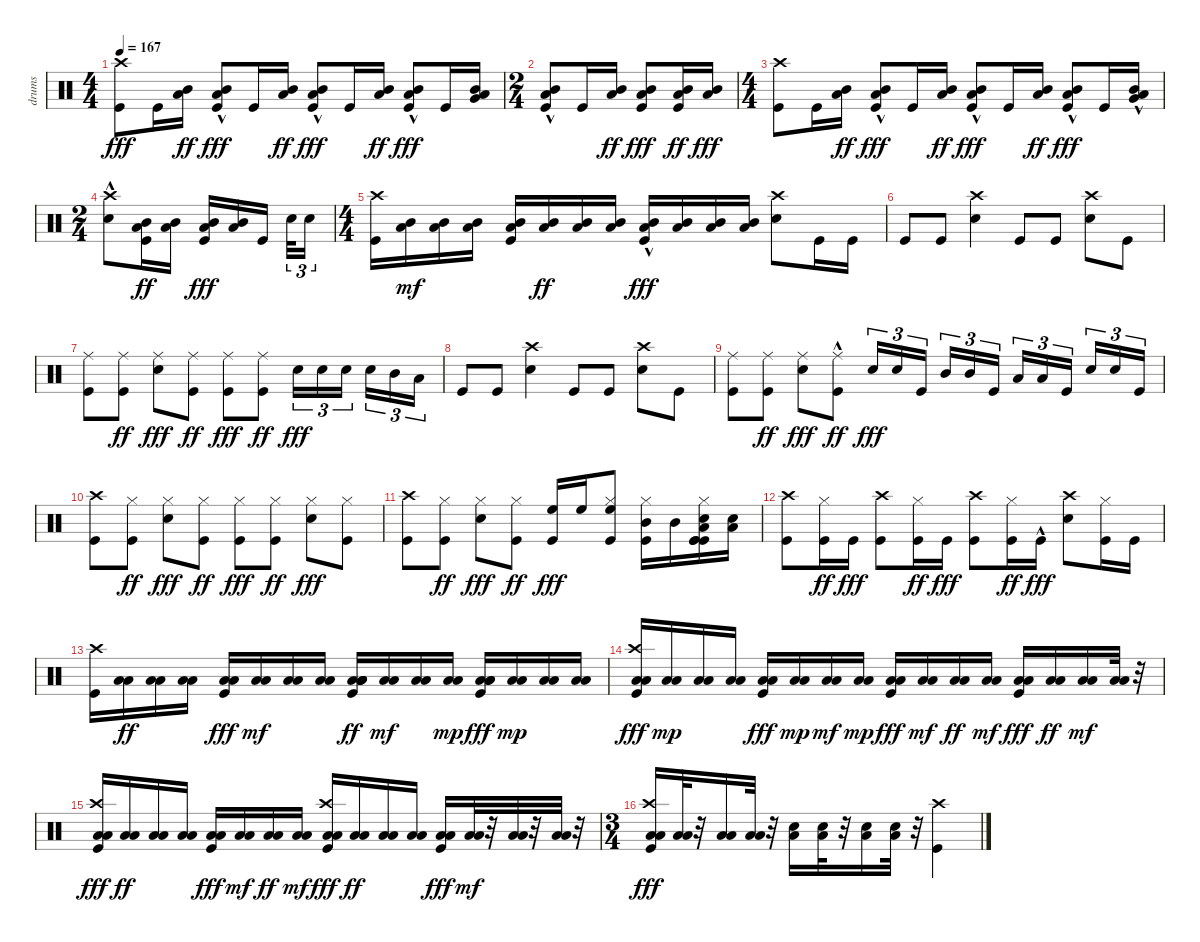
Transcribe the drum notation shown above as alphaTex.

\track ("drums" "drums") {instrument percussion}
\staff {score}
\articulation defaults
\ts (4 4)
\tempo 167
\clef neutral
\ks c
("Kick (hit)" "Crash high (hit)").8{dy fff} "Kick (hit)".16 ("Low Floor Tom (hit)" "Mid Tom (hit)").16{dy ff} ("Kick (hit)" "Low Floor Tom (hit)"{hac} "Mid Tom (hit)"{hac}).8{dy fff} "Kick (hit)".16 ("Low Floor Tom (hit)" "Mid Tom (hit)").16{dy ff} ("Kick (hit)" "Low Floor Tom (hit)"{hac} "Mid Tom (hit)"{hac}).8{dy fff} "Kick (hit)".16 ("Low Floor Tom (hit)" "Mid Tom (hit)").16{dy ff} ("Kick (hit)" "Low Floor Tom (hit)"{hac} "Mid Tom (hit)"{hac}).8{dy fff} "Kick (hit)".16 ("Mid Tom (hit)" "Low Floor Tom (hit)" "Very Low Tom (hit)").16 |
\ts (2 4)
("Low Floor Tom (hit)"{hac} "Kick (hit)" "Mid Tom (hit)"{hac}).8 "Kick (hit)".16 ("Low Floor Tom (hit)" "Mid Tom (hit)").16{dy ff} ("Kick (hit)" "Low Floor Tom (hit)" "Mid Tom (hit)").8{dy fff} ("Kick (hit)" "Low Floor Tom (hit)" "Mid Tom (hit)").16{dy ff} ("Mid Tom (hit)" "Low Floor Tom (hit)").16{dy fff} |
\ts (4 4)
("Kick (hit)" "Crash high (hit)").8 "Kick (hit)".16 ("Low Floor Tom (hit)" "Mid Tom (hit)").16{dy ff} ("Kick (hit)" "Low Floor Tom (hit)"{hac} "Mid Tom (hit)"{hac}).8{dy fff} "Kick (hit)".16 ("Low Floor Tom (hit)" "Mid Tom (hit)").16{dy ff} ("Kick (hit)" "Low Floor Tom (hit)"{hac} "Mid Tom (hit)"{hac}).8{dy fff} "Kick (hit)".16 ("Low Floor Tom (hit)" "Mid Tom (hit)").16{dy ff} ("Kick (hit)" "Low Floor Tom (hit)"{hac} "Mid Tom (hit)"{hac}).8{dy fff} "Kick (hit)".16 ("Mid Tom (hit)"{hac} "Low Floor Tom (hit)"{hac} "Very Low Tom (hit)").16 |
\ts (2 4)
("Crash high (hit)" "Snare (hit) 2"{hac}).8 ("Low Floor Tom (hit)" "Kick (hit)" "Mid Tom (hit)").16{dy ff} ("Low Floor Tom (hit)" "Mid Tom (hit)").16 ("Low Floor Tom (hit)" "Kick (hit)" "Mid Tom (hit)").16{dy fff} ("Mid Tom (hit)" "Low Floor Tom (hit)").16 "Kick (hit)".16 "Snare (hit) 2".32{tu (3 2)} "Snare (hit) 2".16{tu (3 2)} |
\ts (4 4)
("Kick (hit)" "Crash high (hit)").16 ("Low Floor Tom (hit)" "Mid Tom (hit)").16{dy mf} ("Low Floor Tom (hit)" "Mid Tom (hit)").16 ("Low Floor Tom (hit)" "Mid Tom (hit)").16 ("Low Floor Tom (hit)" "Kick (hit)" "Mid Tom (hit)").16 ("Low Floor Tom (hit)" "Mid Tom (hit)").16{dy ff} ("Low Floor Tom (hit)" "Mid Tom (hit)").16 ("Low Floor Tom (hit)" "Mid Tom (hit)").16 ("Low Floor Tom (hit)" "Kick (hit)"{hac} "Mid Tom (hit)").16{dy fff} ("Low Floor Tom (hit)" "Mid Tom (hit)").16 ("Low Floor Tom (hit)" "Mid Tom (hit)").16 ("Mid Tom (hit)" "Low Floor Tom (hit)").16 ("Crash high (hit)" "Snare (hit) 2").8 "Kick (hit)".16 "Kick (hit)".16 |
"Kick (hit)".8 "Kick (hit)".8 ("Snare (hit) 2" "Crash high (hit)").4 "Kick (hit)".8 "Kick (hit)".8 ("Crash high (hit)" "Snare (hit) 2").8 "Kick (hit)".8 |
("Kick (hit)" "Ride (middle)").8 ("Kick (hit)" "Ride (middle)").8{dy ff} ("Snare (hit) 2" "Ride (middle)").8{dy fff} ("Kick (hit)" "Ride (middle)").8{dy ff} ("Kick (hit)" "Ride (middle)").8{dy fff} ("Kick (hit)" "Ride (middle)").8{dy ff} "Snare (hit) 2".16{tu (3 2) dy fff} "Snare (hit) 2".16{tu (3 2)} "Snare (hit) 2".16{tu (3 2)} "Snare (hit) 2".16{tu (3 2)} "Mid Tom (hit)".16{tu (3 2)} "Low Floor Tom (hit)".16{tu (3 2)} |
"Kick (hit)".8 "Kick (hit)".8 ("Snare (hit) 2" "Crash high (hit)").4 "Kick (hit)".8 "Kick (hit)".8 ("Crash high (hit)" "Snare (hit) 2").8 "Kick (hit)".8 |
("Kick (hit)" "Ride (middle)").8 ("Kick (hit)" "Ride (middle)").8{dy ff} ("Snare (hit) 2" "Ride (middle)").8{dy fff} ("Kick (hit)"{hac} "Ride (middle)").8{dy ff} "Snare (hit) 2".16{tu (3 2) dy fff} "Snare (hit) 2".16{tu (3 2)} "Kick (hit)".16{tu (3 2)} "Mid Tom (hit)".16{tu (3 2)} "Mid Tom (hit)".16{tu (3 2)} "Kick (hit)".16{tu (3 2)} "Low Floor Tom (hit)".16{tu (3 2)} "Low Floor Tom (hit)".16{tu (3 2)} "Kick (hit)".16{tu (3 2)} "Snare (hit) 2".16{tu (3 2)} "Snare (hit) 2".16{tu (3 2)} "Kick (hit)".16{tu (3 2)} |
("Crash high (hit)" "Kick (hit)").8 ("Kick (hit)" "Hi-Hat (closed)").8{dy ff} ("Snare (hit) 2" "Hi-Hat (closed)").8{dy fff} ("Kick (hit)" "Hi-Hat (closed)").8{dy ff} ("Kick (hit)" "Hi-Hat (closed)").8{dy fff} ("Kick (hit)" "Hi-Hat (closed)").8{dy ff} ("Snare (hit) 2" "Hi-Hat (closed)").8{dy fff} ("Hi-Hat (closed)" "Kick (hit)").8 |
("Crash high (hit)" "Kick (hit)").8 ("Kick (hit)" "Hi-Hat (closed)").8{dy ff} ("Snare (hit) 2" "Hi-Hat (closed)").8{dy fff} ("Kick (hit)" "Hi-Hat (closed)").8{dy ff} ("Kick (hit)" "High Floor Tom (hit)").16{dy fff} "High Floor Tom (hit)".16 ("Kick (hit)" "Hi-Hat (closed)" "High Floor Tom (hit)").8 ("Kick (hit)" "Hi-Hat (closed)" "Mid Tom (hit)").16 "Mid Tom (hit)".16 ("Hi-Hat (closed)" "Kick (hit)" "Kick (hit)" "Kick (hit)" "Low Floor Tom (hit)" "Snare (hit) 2").16 ("Low Floor Tom (hit)" "Snare (hit) 2").16 |
("Kick (hit)" "Crash high (hit)").8 ("Kick (hit)" "Hi-Hat (closed)").16{dy ff} "Kick (hit)".16{dy fff} ("Kick (hit)" "Crash high (hit)").8 ("Kick (hit)" "Hi-Hat (closed)").16{dy ff} "Kick (hit)".16{dy fff} ("Kick (hit)" "Crash high (hit)").8 ("Kick (hit)" "Hi-Hat (closed)").16{dy ff} "Kick (hit)"{hac}.16{dy fff} ("Crash high (hit)" "Snare (hit) 2").8 ("Hi-Hat (closed)" "Kick (hit)").16 "Kick (hit)".16 |
("Kick (hit)" "Crash high (hit)").16 ("Low Floor Tom (hit)" "Low Tom (hit)").16{dy ff} ("Low Floor Tom (hit)" "Low Tom (hit)").16 ("Low Floor Tom (hit)" "Low Tom (hit)").16 ("Low Floor Tom (hit)" "Kick (hit)" "Low Tom (hit)").16{dy fff} ("Low Floor Tom (hit)" "Low Tom (hit)").16{dy mf} ("Low Floor Tom (hit)" "Low Tom (hit)").16 ("Low Floor Tom (hit)" "Low Tom (hit)").16 ("Low Floor Tom (hit)" "Low Tom (hit)" "Low Floor Tom (hit)" "Kick (hit)" "Low Tom (hit)").16{dy ff} ("Low Floor Tom (hit)" "Low Tom (hit)").16{dy mf} ("Low Floor Tom (hit)" "Low Tom (hit)").16 ("Low Floor Tom (hit)" "Low Tom (hit)").16{dy mp} ("Kick (hit)" "Low Floor Tom (hit)" "Low Floor Tom (hit)" "Low Tom (hit)").16{dy fff} ("Low Floor Tom (hit)" "Low Tom (hit)").16{dy mp} ("Low Floor Tom (hit)" "Low Tom (hit)").16 ("Low Tom (hit)" "Low Floor Tom (hit)").16 |
("Low Floor Tom (hit)" "Kick (hit)" "Low Tom (hit)" "Crash high (hit)").16{dy fff} ("Low Floor Tom (hit)" "Low Tom (hit)").16{dy mp} ("Low Floor Tom (hit)" "Low Tom (hit)").16 ("Low Floor Tom (hit)" "Low Tom (hit)").16 ("Low Floor Tom (hit)" "Kick (hit)" "Low Tom (hit)").16{dy fff} ("Low Floor Tom (hit)" "Low Tom (hit)").16{dy mp} ("Low Floor Tom (hit)" "Low Tom (hit)").16{dy mf} ("Low Floor Tom (hit)" "Low Tom (hit)").16{dy mp} ("Low Floor Tom (hit)" "Kick (hit)" "Low Tom (hit)").16{dy fff} ("Low Floor Tom (hit)" "Low Tom (hit)").16{dy mf} ("Low Floor Tom (hit)" "Low Tom (hit)").16{dy ff} ("Low Floor Tom (hit)" "Low Tom (hit)").16{dy mf} ("Kick (hit)" "Low Floor Tom (hit)" "Low Tom (hit)").16{dy fff} ("Low Floor Tom (hit)" "Low Tom (hit)").16{dy ff} ("Low Floor Tom (hit)" "Low Tom (hit)").16{dy mf} ("Low Floor Tom (hit)" "Low Tom (hit)").32 r.32 |
("Low Floor Tom (hit)" "Kick (hit)" "Low Tom (hit)" "Crash high (hit)").16{dy fff} ("Low Floor Tom (hit)" "Low Tom (hit)").16{dy ff} ("Low Floor Tom (hit)" "Low Tom (hit)").16 ("Low Floor Tom (hit)" "Low Tom (hit)").16 ("Low Floor Tom (hit)" "Kick (hit)" "Low Tom (hit)").16{dy fff} ("Low Floor Tom (hit)" "Low Tom (hit)").16{dy mf} ("Low Floor Tom (hit)" "Low Tom (hit)").16{dy ff} ("Low Floor Tom (hit)" "Low Tom (hit)").16{dy mf} ("Crash high (hit)" "Low Floor Tom (hit)" "Kick (hit)" "Low Tom (hit)").16{dy fff} ("Low Floor Tom (hit)" "Low Tom (hit)").16{dy ff} ("Low Floor Tom (hit)" "Low Tom (hit)").16 ("Low Floor Tom (hit)" "Low Tom (hit)").16 ("Kick (hit)" "Low Tom (hit)" "Low Floor Tom (hit)").16{dy fff} ("Low Floor Tom (hit)" "Low Tom (hit)").32{dy mf} r.32 ("Low Tom (hit)" "Low Floor Tom (hit)").32 r.32 ("Low Floor Tom (hit)" "Low Tom (hit)").32 r.32 |
\ts (3 4)
("Low Floor Tom (hit)" "Kick (hit)" "Low Tom (hit)" "Crash high (hit)").16{dy fff} ("Low Floor Tom (hit)" "Low Tom (hit)").32 r.32 ("Low Floor Tom (hit)" "Low Tom (hit)").16 ("Low Floor Tom (hit)" "Low Tom (hit)").32 r.32 ("Snare (hit) 2" "Low Floor Tom (hit)").16 ("Snare (hit) 2" "Low Floor Tom (hit)").32 r.32 ("Snare (hit) 2" "Low Floor Tom (hit)").16 ("Snare (hit) 2" "Low Floor Tom (hit)").32 r.32 ("Crash high (hit)" "Kick (hit)").4
